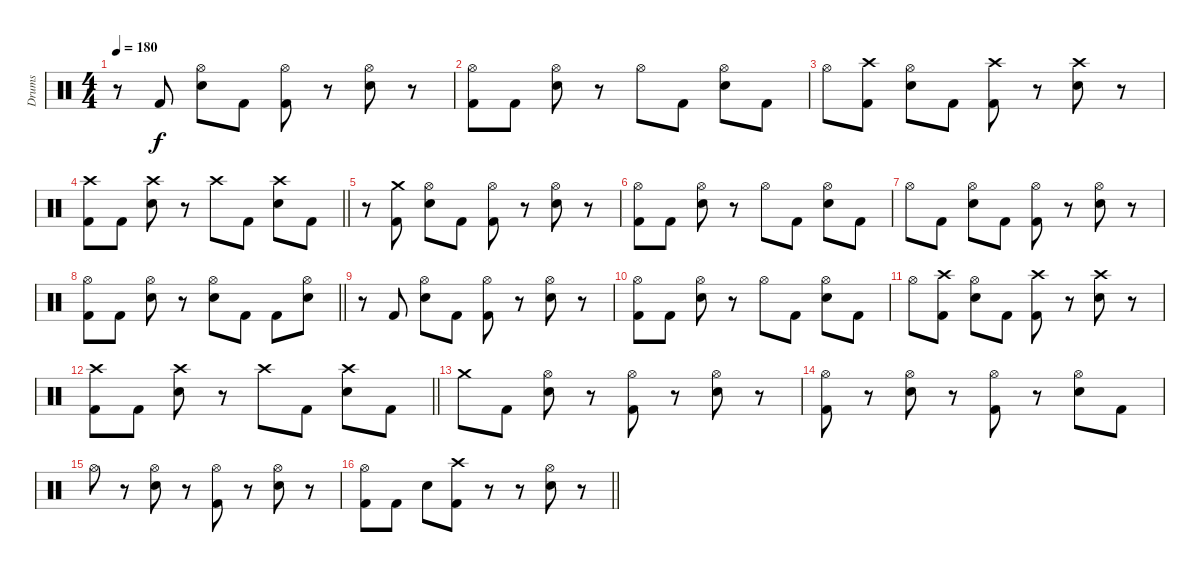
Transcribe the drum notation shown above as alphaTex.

\track ("Drums" "Drums") {instrument percussion}
\staff {score}
\articulation defaults
\ts (4 4)
\tempo 180
\clef neutral
\ks c
r.8{dy f} "Kick (hit) 2".8 ("Hi-Hat (open)" "Electric Snare (hit)").8 "Kick (hit) 2".8 ("Hi-Hat (open)" "Kick (hit) 2").8 r.8 ("Hi-Hat (open)" "Electric Snare (hit)").8 r.8 |
("Hi-Hat (open)" "Kick (hit) 2").8 "Kick (hit) 2".8 ("Hi-Hat (open)" "Electric Snare (hit)").8 r.8 "Hi-Hat (open)".8 "Kick (hit) 2".8 ("Hi-Hat (open)" "Electric Snare (hit)").8 "Kick (hit) 2".8 |
"Hi-Hat (open)".8 ("Crash high (hit)" "Kick (hit) 2").8 ("Hi-Hat (open)" "Electric Snare (hit)").8 "Kick (hit) 2".8 ("Crash high (hit)" "Kick (hit) 2").8 r.8 ("Crash high (hit)" "Electric Snare (hit)").8 r.8 |
\barLineRight lightlight
("Crash high (hit)" "Kick (hit) 2").8 "Kick (hit) 2".8 ("Crash high (hit)" "Electric Snare (hit)").8 r.8 "Crash high (hit)".8 "Kick (hit) 2".8 ("Crash high (hit)" "Electric Snare (hit)").8 "Kick (hit) 2".8 |
r.8 ("Crash medium (hit)" "Kick (hit) 2").8 ("Hi-Hat (open)" "Electric Snare (hit)").8 "Kick (hit) 2".8 ("Hi-Hat (open)" "Kick (hit) 2").8 r.8 ("Hi-Hat (open)" "Electric Snare (hit)").8 r.8 |
("Hi-Hat (open)" "Kick (hit) 2").8 "Kick (hit) 2".8 ("Hi-Hat (open)" "Electric Snare (hit)").8 r.8 "Hi-Hat (open)".8 "Kick (hit) 2".8 ("Hi-Hat (open)" "Electric Snare (hit)").8 "Kick (hit) 2".8 |
"Hi-Hat (open)".8 "Kick (hit) 2".8 ("Hi-Hat (open)" "Electric Snare (hit)").8 "Kick (hit) 2".8 ("Hi-Hat (open)" "Kick (hit) 2").8 r.8 ("Hi-Hat (open)" "Electric Snare (hit)").8 r.8 |
\barLineRight lightlight
("Hi-Hat (open)" "Kick (hit) 2").8 "Kick (hit) 2".8 ("Hi-Hat (open)" "Electric Snare (hit)").8 r.8 ("Hi-Hat (open)" "Electric Snare (hit)").8 "Kick (hit) 2".8 "Kick (hit) 2".8 ("Hi-Hat (open)" "Electric Snare (hit)").8 |
r.8 "Kick (hit) 2".8 ("Hi-Hat (open)" "Electric Snare (hit)").8 "Kick (hit) 2".8 ("Hi-Hat (open)" "Kick (hit) 2").8 r.8 ("Hi-Hat (open)" "Electric Snare (hit)").8 r.8 |
("Hi-Hat (open)" "Kick (hit) 2").8 "Kick (hit) 2".8 ("Hi-Hat (open)" "Electric Snare (hit)").8 r.8 "Hi-Hat (open)".8 "Kick (hit) 2".8 ("Hi-Hat (open)" "Electric Snare (hit)").8 "Kick (hit) 2".8 |
"Hi-Hat (open)".8 ("Crash high (hit)" "Kick (hit) 2").8 ("Hi-Hat (open)" "Electric Snare (hit)").8 "Kick (hit) 2".8 ("Crash high (hit)" "Kick (hit) 2").8 r.8 ("Crash high (hit)" "Electric Snare (hit)").8 r.8 |
\barLineRight lightlight
("Crash high (hit)" "Kick (hit) 2").8 "Kick (hit) 2".8 ("Crash high (hit)" "Electric Snare (hit)").8 r.8 "Crash high (hit)".8 "Kick (hit) 2".8 ("Crash high (hit)" "Electric Snare (hit)").8 "Kick (hit) 2".8 |
"Crash medium (hit)".8 "Kick (hit) 2".8 ("Hi-Hat (open)" "Electric Snare (hit)").8 r.8 ("Hi-Hat (open)" "Kick (hit) 2").8 r.8 ("Hi-Hat (open)" "Electric Snare (hit)").8 r.8 |
("Hi-Hat (open)" "Kick (hit) 2").8 r.8 ("Hi-Hat (open)" "Electric Snare (hit)").8 r.8 ("Hi-Hat (open)" "Kick (hit) 2").8 r.8 ("Hi-Hat (open)" "Electric Snare (hit)").8 "Kick (hit) 2".8 |
"Hi-Hat (open)".8 r.8 ("Hi-Hat (open)" "Electric Snare (hit)").8 r.8 ("Hi-Hat (open)" "Kick (hit) 2").8 r.8 ("Hi-Hat (open)" "Electric Snare (hit)").8 r.8 |
\barLineRight lightlight
("Hi-Hat (open)" "Kick (hit) 2").8 "Kick (hit) 2".8 "Electric Snare (hit)".8 ("Crash high (hit)" "Kick (hit) 2").8 r.8 r.8 ("Hi-Hat (open)" "Electric Snare (hit)").8 r.8
